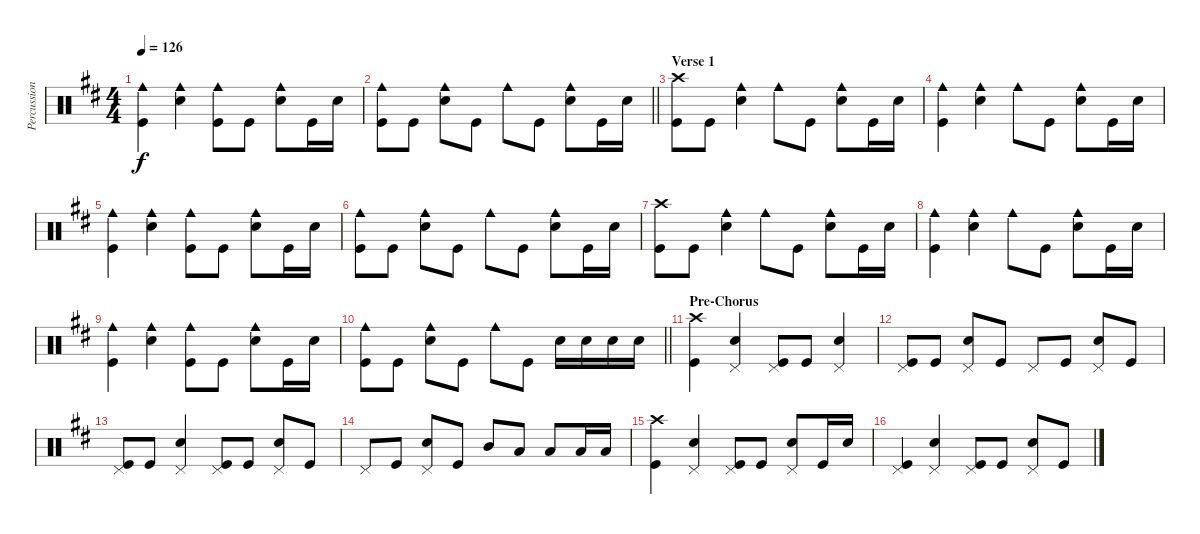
\track ("Percussion" "Percussion") {instrument percussion}
\staff {score}
\articulation defaults
\ts (4 4)
\tempo 126
\clef neutral
\ks d
("Cowbell medium (hit)" "Kick (hit)").4{dy f} ("Cowbell medium (hit)" "Snare (hit) 2").4 ("Cowbell medium (hit)" "Kick (hit)").8 "Kick (hit)".8 ("Cowbell medium (hit)" "Snare (hit) 2").8 "Kick (hit)".16 "Snare (hit) 2".16 |
\barLineRight lightlight
("Cowbell medium (hit)" "Kick (hit)").8 "Kick (hit)".8 ("Cowbell medium (hit)" "Snare (hit) 2").8 "Kick (hit)".8 "Cowbell medium (hit)".8 "Kick (hit)".8 ("Cowbell medium (hit)" "Snare (hit) 2").8 "Kick (hit)".16 "Snare (hit) 2".16 |
\section ("" "Verse 1")
("Crash high (hit)" "Kick (hit)").8 "Kick (hit)".8 ("Cowbell medium (hit)" "Snare (hit) 2").4 "Cowbell medium (hit)".8 "Kick (hit)".8 ("Cowbell medium (hit)" "Snare (hit) 2").8 "Kick (hit)".16 "Snare (hit) 2".16 |
("Cowbell medium (hit)" "Kick (hit)").4 ("Cowbell medium (hit)" "Snare (hit) 2").4 "Cowbell medium (hit)".8 "Kick (hit)".8 ("Cowbell medium (hit)" "Snare (hit) 2").8 "Kick (hit)".16 "Snare (hit) 2".16 |
("Cowbell medium (hit)" "Kick (hit)").4 ("Cowbell medium (hit)" "Snare (hit) 2").4 ("Cowbell medium (hit)" "Kick (hit)").8 "Kick (hit)".8 ("Cowbell medium (hit)" "Snare (hit) 2").8 "Kick (hit)".16 "Snare (hit) 2".16 |
("Cowbell medium (hit)" "Kick (hit)").8 "Kick (hit)".8 ("Cowbell medium (hit)" "Snare (hit) 2").8 "Kick (hit)".8 "Cowbell medium (hit)".8 "Kick (hit)".8 ("Cowbell medium (hit)" "Snare (hit) 2").8 "Kick (hit)".16 "Snare (hit) 2".16 |
("Crash high (hit)" "Kick (hit)").8 "Kick (hit)".8 ("Cowbell medium (hit)" "Snare (hit) 2").4 "Cowbell medium (hit)".8 "Kick (hit)".8 ("Cowbell medium (hit)" "Snare (hit) 2").8 "Kick (hit)".16 "Snare (hit) 2".16 |
("Cowbell medium (hit)" "Kick (hit)").4 ("Cowbell medium (hit)" "Snare (hit) 2").4 "Cowbell medium (hit)".8 "Kick (hit)".8 ("Cowbell medium (hit)" "Snare (hit) 2").8 "Kick (hit)".16 "Snare (hit) 2".16 |
("Cowbell medium (hit)" "Kick (hit)").4 ("Cowbell medium (hit)" "Snare (hit) 2").4 ("Cowbell medium (hit)" "Kick (hit)").8 "Kick (hit)".8 ("Cowbell medium (hit)" "Snare (hit) 2").8 "Kick (hit)".16 "Snare (hit) 2".16 |
\barLineRight lightlight
("Cowbell medium (hit)" "Kick (hit)").8 "Kick (hit)".8 ("Cowbell medium (hit)" "Snare (hit) 2").8 "Kick (hit)".8 "Cowbell medium (hit)".8 "Kick (hit)".8 "Snare (hit) 2".16 "Snare (hit) 2".16 "Snare (hit) 2".16 "Snare (hit) 2".16 |
\section ("" "Pre-Chorus")
("Crash high (hit)" "Kick (hit)").4 ("Pedal Hi-Hat (hit)" "Snare (hit) 2").4 ("Pedal Hi-Hat (hit)" "Kick (hit)").8 "Kick (hit)".8 ("Pedal Hi-Hat (hit)" "Snare (hit) 2").4 |
("Pedal Hi-Hat (hit)" "Kick (hit)").8 "Kick (hit)".8 ("Pedal Hi-Hat (hit)" "Snare (hit) 2").8 "Kick (hit)".8 "Pedal Hi-Hat (hit)".8 "Kick (hit)".8 ("Pedal Hi-Hat (hit)" "Snare (hit) 2").8 "Kick (hit)".8 |
("Pedal Hi-Hat (hit)" "Kick (hit)").8 "Kick (hit)".8 ("Pedal Hi-Hat (hit)" "Snare (hit) 2").4 ("Pedal Hi-Hat (hit)" "Kick (hit)").8 "Kick (hit)".8 ("Pedal Hi-Hat (hit)" "Snare (hit) 2").8 "Kick (hit)".8 |
"Pedal Hi-Hat (hit)".8 "Kick (hit)".8 ("Pedal Hi-Hat (hit)" "Snare (hit) 2").8 "Kick (hit)".8 "Mid Tom (hit)".8 "Low Tom (hit)".8 "Low Tom (hit)".8 "Low Tom (hit)".16 "Low Tom (hit)".16 |
("Crash high (hit)" "Kick (hit)").4 ("Pedal Hi-Hat (hit)" "Snare (hit) 2").4 ("Pedal Hi-Hat (hit)" "Kick (hit)").8 "Kick (hit)".8 ("Pedal Hi-Hat (hit)" "Snare (hit) 2").8 "Kick (hit)".16 "Snare (hit) 2".16 |
("Pedal Hi-Hat (hit)" "Kick (hit)").4 ("Pedal Hi-Hat (hit)" "Snare (hit) 2").4 ("Pedal Hi-Hat (hit)" "Kick (hit)").8 "Kick (hit)".8 ("Pedal Hi-Hat (hit)" "Snare (hit) 2").8 "Kick (hit)".8
